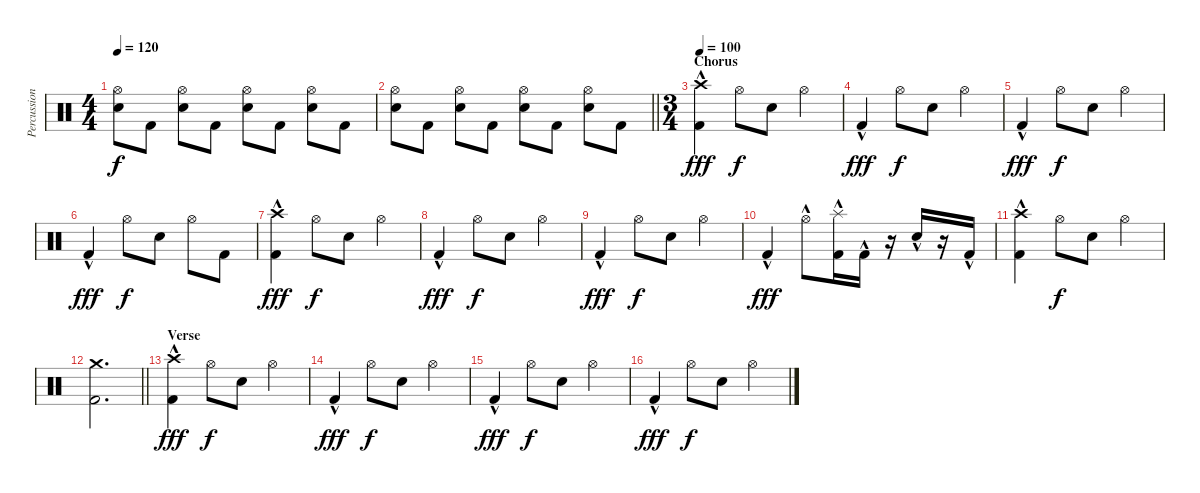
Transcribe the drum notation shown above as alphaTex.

\track ("Percussion" "Percussion") {instrument percussion}
\staff {score}
\articulation defaults
\ts (4 4)
\tempo 120
\clef neutral
\ks c
("Hi-Hat (open)" "Snare (hit) 2").8{dy f} "Kick (hit) 2".8 ("Hi-Hat (open)" "Snare (hit) 2").8 "Kick (hit) 2".8 ("Hi-Hat (open)" "Snare (hit) 2").8 "Kick (hit) 2".8 ("Hi-Hat (open)" "Snare (hit) 2").8 "Kick (hit) 2".8 |
\barLineRight lightlight
("Hi-Hat (open)" "Snare (hit) 2").8 "Kick (hit) 2".8 ("Hi-Hat (open)" "Snare (hit) 2").8 "Kick (hit) 2".8 ("Hi-Hat (open)" "Snare (hit) 2").8 "Kick (hit) 2".8 ("Hi-Hat (open)" "Snare (hit) 2").8 "Kick (hit) 2".8 |
\ts (3 4)
\section ("" "Chorus")
\tempo 100
("Crash high (hit)" "Kick (hit) 2"{hac}).4{dy fff} "Hi-Hat (open)".8{dy f} "Snare (hit) 2".8 "Hi-Hat (open)".4 |
"Kick (hit) 2"{hac}.4{dy fff} "Hi-Hat (open)".8{dy f} "Snare (hit) 2".8 "Hi-Hat (open)".4 |
"Kick (hit) 2"{hac}.4{dy fff} "Hi-Hat (open)".8{dy f} "Snare (hit) 2".8 "Hi-Hat (open)".4 |
"Kick (hit) 2"{hac}.4{dy fff} "Hi-Hat (open)".8{dy f} "Snare (hit) 2".8 "Hi-Hat (open)".8 "Kick (hit) 2".8 |
("Crash high (hit)" "Kick (hit) 2"{hac}).4{dy fff} "Hi-Hat (open)".8{dy f} "Snare (hit) 2".8 "Hi-Hat (open)".4 |
"Kick (hit) 2"{hac}.4{dy fff} "Hi-Hat (open)".8{dy f} "Snare (hit) 2".8 "Hi-Hat (open)".4 |
"Kick (hit) 2"{hac}.4{dy fff} "Hi-Hat (open)".8{dy f} "Snare (hit) 2".8 "Hi-Hat (open)".4 |
"Kick (hit) 2"{hac}.4{dy fff} "Hi-Hat (open)"{hac}.8 ("Splash (hit)"{hac} "Kick (hit) 2"{hac}).16 "Kick (hit) 2"{hac}.16 r.16 "Snare (hit) 2"{hac}.16 r.16 "Kick (hit) 2"{hac}.16 |
("Crash high (hit)" "Kick (hit) 2"{hac}).4 "Hi-Hat (open)".8{dy f} "Snare (hit) 2".8 "Hi-Hat (open)".4 |
\barLineRight lightlight
("Crash medium (hit)" "Kick (hit) 2").2{d} |
\section ("" "Verse")
("Crash high (hit)" "Kick (hit) 2"{hac}).4{dy fff} "Hi-Hat (open)".8{dy f} "Snare (hit) 2".8 "Hi-Hat (open)".4 |
"Kick (hit) 2"{hac}.4{dy fff} "Hi-Hat (open)".8{dy f} "Snare (hit) 2".8 "Hi-Hat (open)".4 |
"Kick (hit) 2"{hac}.4{dy fff} "Hi-Hat (open)".8{dy f} "Snare (hit) 2".8 "Hi-Hat (open)".4 |
"Kick (hit) 2"{hac}.4{dy fff} "Hi-Hat (open)".8{dy f} "Snare (hit) 2".8 "Hi-Hat (open)".4
